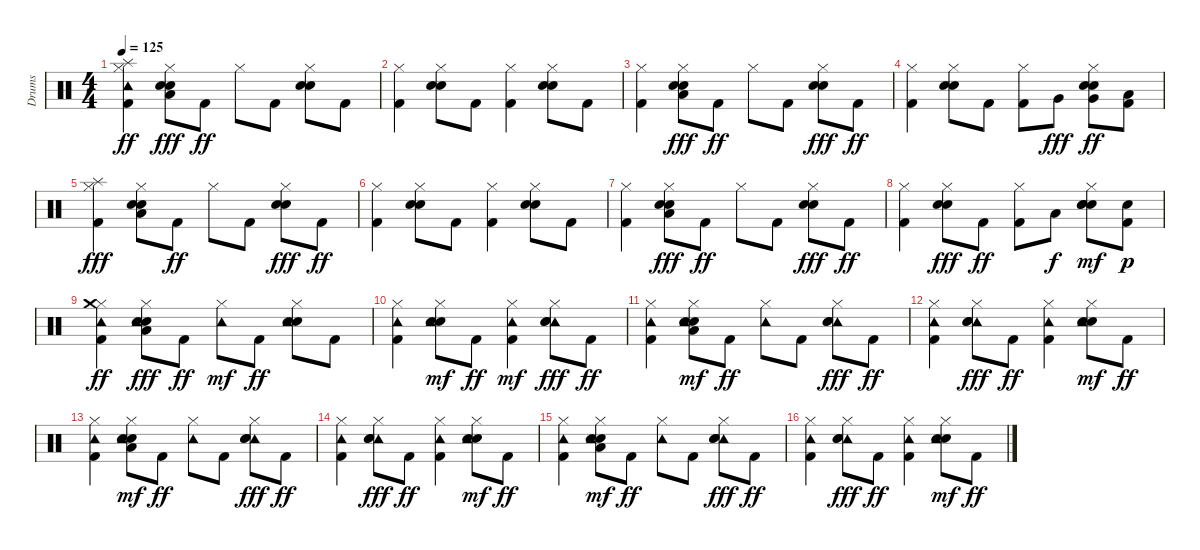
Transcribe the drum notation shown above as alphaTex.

\track ("Drums" "Drums") {instrument percussion}
\staff {score}
\articulation defaults
\ts (4 4)
\tempo 125
\clef neutral
\ks c
("Hi-Hat (closed)" "Kick (hit) 2" "Tambourine (hit)" "Splash (hit)").4{dy ff} ("Hi-Hat (closed)" "Hand Clap (hit)" "Low Tom (hit)" "Snare (hit) 2").8{dy fff} "Kick (hit) 2".8{dy ff} "Hi-Hat (closed)".8 "Kick (hit) 2".8 ("Hi-Hat (closed)" "Hand Clap (hit)" "Snare (hit) 2").8 "Kick (hit) 2".8 |
("Hi-Hat (closed)" "Kick (hit) 2").4 ("Hi-Hat (closed)" "Hand Clap (hit)" "Snare (hit) 2").8 "Kick (hit) 2".8 ("Hi-Hat (closed)" "Kick (hit) 2").4 ("Hi-Hat (closed)" "Hand Clap (hit)" "Snare (hit) 2").8 "Kick (hit) 2".8 |
("Hi-Hat (closed)" "Kick (hit) 2").4 ("Hi-Hat (closed)" "Hand Clap (hit)" "Low Tom (hit)" "Snare (hit) 2").8{dy fff} "Kick (hit) 2".8{dy ff} "Hi-Hat (closed)".8 "Kick (hit) 2".8 ("Hi-Hat (closed)" "Hand Clap (hit)" "Snare (hit) 2").8{dy fff} "Kick (hit) 2".8{dy ff} |
("Hi-Hat (closed)" "Kick (hit) 2").4 ("Hi-Hat (closed)" "Hand Clap (hit)" "Snare (hit) 2").8 "Kick (hit) 2".8 ("Hi-Hat (closed)" "Kick (hit) 2").8 "Very Low Tom (hit)".8{dy fff} ("Hi-Hat (closed)" "Hand Clap (hit)" "Snare (hit) 2" "Very Low Tom (hit)").8{dy ff} ("Kick (hit) 2" "Low Floor Tom (hit)").8 |
("Hi-Hat (closed)" "Kick (hit) 2" "Splash (hit)").4{dy fff} ("Hi-Hat (closed)" "Hand Clap (hit)" "Low Tom (hit)" "Snare (hit) 2").8 "Kick (hit) 2".8{dy ff} "Hi-Hat (closed)".8 "Kick (hit) 2".8 ("Hi-Hat (closed)" "Hand Clap (hit)" "Snare (hit) 2").8{dy fff} "Kick (hit) 2".8{dy ff} |
("Hi-Hat (closed)" "Kick (hit) 2").4 ("Hi-Hat (closed)" "Hand Clap (hit)" "Snare (hit) 2").8 "Kick (hit) 2".8 ("Hi-Hat (closed)" "Kick (hit) 2").4 ("Hi-Hat (closed)" "Hand Clap (hit)" "Snare (hit) 2").8 "Kick (hit) 2".8 |
("Hi-Hat (closed)" "Kick (hit) 2").4 ("Hi-Hat (closed)" "Hand Clap (hit)" "Low Tom (hit)" "Snare (hit) 2").8{dy fff} "Kick (hit) 2".8{dy ff} "Hi-Hat (closed)".8 "Kick (hit) 2".8 ("Hi-Hat (closed)" "Hand Clap (hit)" "Snare (hit) 2").8{dy fff} "Kick (hit) 2".8{dy ff} |
("Hi-Hat (closed)" "Kick (hit) 2").4 ("Hi-Hat (closed)" "Hand Clap (hit)" "Snare (hit) 2").8{dy fff} "Kick (hit) 2".8{dy ff} ("Hi-Hat (closed)" "Kick (hit) 2").8 "Low Floor Tom (hit)".8{dy f} ("Hi-Hat (closed)" "Hand Clap (hit)" "Snare (hit) 2" "Electric Snare (hit)").8{dy mf} ("Kick (hit) 2" "Electric Snare (hit)").8{dy p} |
("Tambourine (hit)" "Hi-Hat (closed)" "Kick (hit) 2" "Crash medium (hit)").4{dy ff} ("Hi-Hat (closed)" "Hand Clap (hit)" "Low Tom (hit)" "Snare (hit) 2" "Tambourine (hit)").8{dy fff} "Kick (hit) 2".8{dy ff} ("Hi-Hat (closed)" "Tambourine (hit)").8{dy mf} "Kick (hit) 2".8{dy ff} ("Hi-Hat (closed)" "Hand Clap (hit)" "Snare (hit) 2" "Tambourine (hit)").8 "Kick (hit) 2".8 |
("Tambourine (hit)" "Hi-Hat (closed)" "Kick (hit) 2").4 ("Hi-Hat (closed)" "Hand Clap (hit)" "Snare (hit) 2" "Tambourine (hit)").8{dy mf} "Kick (hit) 2".8{dy ff} ("Hi-Hat (closed)" "Kick (hit) 2" "Tambourine (hit)").4{dy mf} ("Tambourine (hit)" "Hi-Hat (closed)" "Hand Clap (hit)" "Snare (hit) 2").8{dy fff} "Kick (hit) 2".8{dy ff} |
("Tambourine (hit)" "Hi-Hat (closed)" "Kick (hit) 2").4 ("Hi-Hat (closed)" "Hand Clap (hit)" "Low Tom (hit)" "Snare (hit) 2" "Tambourine (hit)").8{dy mf} "Kick (hit) 2".8{dy ff} ("Tambourine (hit)" "Hi-Hat (closed)").8 "Kick (hit) 2".8 ("Tambourine (hit)" "Hi-Hat (closed)" "Hand Clap (hit)" "Snare (hit) 2").8{dy fff} "Kick (hit) 2".8{dy ff} |
("Tambourine (hit)" "Hi-Hat (closed)" "Kick (hit) 2").4 ("Tambourine (hit)" "Hi-Hat (closed)" "Hand Clap (hit)" "Snare (hit) 2").8{dy fff} "Kick (hit) 2".8{dy ff} ("Tambourine (hit)" "Hi-Hat (closed)" "Kick (hit) 2").4 ("Hi-Hat (closed)" "Hand Clap (hit)" "Snare (hit) 2" "Tambourine (hit)").8{dy mf} "Kick (hit) 2".8{dy ff} |
("Tambourine (hit)" "Hi-Hat (closed)" "Kick (hit) 2").4 ("Hi-Hat (closed)" "Hand Clap (hit)" "Low Tom (hit)" "Snare (hit) 2" "Tambourine (hit)").8{dy mf} "Kick (hit) 2".8{dy ff} ("Tambourine (hit)" "Hi-Hat (closed)").8 "Kick (hit) 2".8 ("Tambourine (hit)" "Hi-Hat (closed)" "Hand Clap (hit)" "Snare (hit) 2").8{dy fff} "Kick (hit) 2".8{dy ff} |
("Tambourine (hit)" "Hi-Hat (closed)" "Kick (hit) 2").4 ("Tambourine (hit)" "Hi-Hat (closed)" "Hand Clap (hit)" "Snare (hit) 2").8{dy fff} "Kick (hit) 2".8{dy ff} ("Tambourine (hit)" "Hi-Hat (closed)" "Kick (hit) 2").4 ("Hi-Hat (closed)" "Hand Clap (hit)" "Snare (hit) 2" "Tambourine (hit)").8{dy mf} "Kick (hit) 2".8{dy ff} |
("Tambourine (hit)" "Hi-Hat (closed)" "Kick (hit) 2").4 ("Hi-Hat (closed)" "Hand Clap (hit)" "Low Tom (hit)" "Snare (hit) 2" "Tambourine (hit)").8{dy mf} "Kick (hit) 2".8{dy ff} ("Tambourine (hit)" "Hi-Hat (closed)").8 "Kick (hit) 2".8 ("Tambourine (hit)" "Hi-Hat (closed)" "Hand Clap (hit)" "Snare (hit) 2").8{dy fff} "Kick (hit) 2".8{dy ff} |
("Tambourine (hit)" "Hi-Hat (closed)" "Kick (hit) 2").4 ("Tambourine (hit)" "Hi-Hat (closed)" "Hand Clap (hit)" "Snare (hit) 2").8{dy fff} "Kick (hit) 2".8{dy ff} ("Tambourine (hit)" "Hi-Hat (closed)" "Kick (hit) 2").4 ("Hi-Hat (closed)" "Hand Clap (hit)" "Snare (hit) 2" "Tambourine (hit)").8{dy mf} "Kick (hit) 2".8{dy ff}
